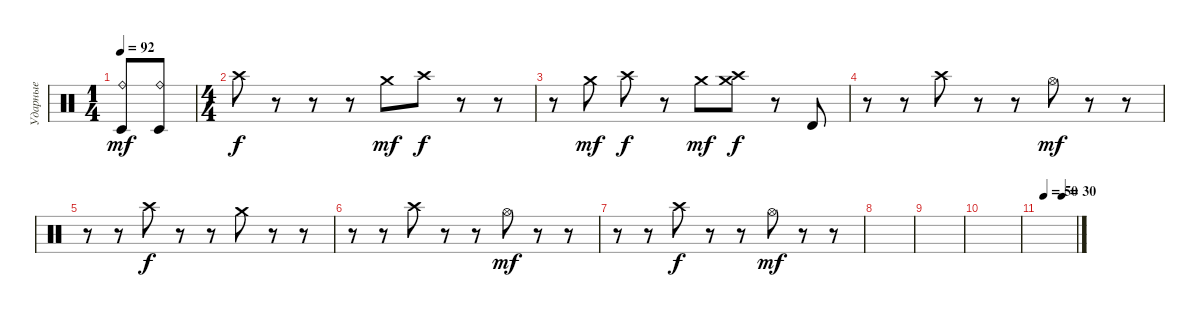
\track ("Ударные" "Ударные") {instrument percussion}
\staff {score}
\articulation defaults
\ts (1 4)
\tempo 92
\clef neutral
\ks c
("Timbale low (hit)" "Ride (bell)").8{dy mf} ("Timbale low (hit)" "Ride (bell)").8 |
\ts (4 4)
"Crash high (hit)".8{dy f} r.8 r.8 r.8 "Crash medium (hit)".8{dy mf} "Crash high (hit)".8{dy f} r.8 r.8 |
r.8 "Crash medium (hit)".8{dy mf} "Crash high (hit)".8{dy f} r.8 "Crash medium (hit)".8{dy mf} ("Crash high (hit)" "Crash medium (hit)").8{dy f} r.8 "Timbale high (hit)".8 |
r.8 r.8 "Crash high (hit)".8 r.8 r.8 "Hi-Hat (open)".8{dy mf} r.8 r.8 |
r.8 r.8 "Crash high (hit)".8{dy f} r.8 r.8 "Crash medium (hit)".8 r.8 r.8 |
r.8 r.8 "Crash high (hit)".8 r.8 r.8 "Hi-Hat (open)".8{dy mf} r.8 r.8 |
r.8 r.8 "Crash high (hit)".8{dy f} r.8 r.8 "Hi-Hat (open)".8{dy mf} r.8 r.8 |
|
|
|
\tempo (50 0.125)
\tempo (30 0.625)
